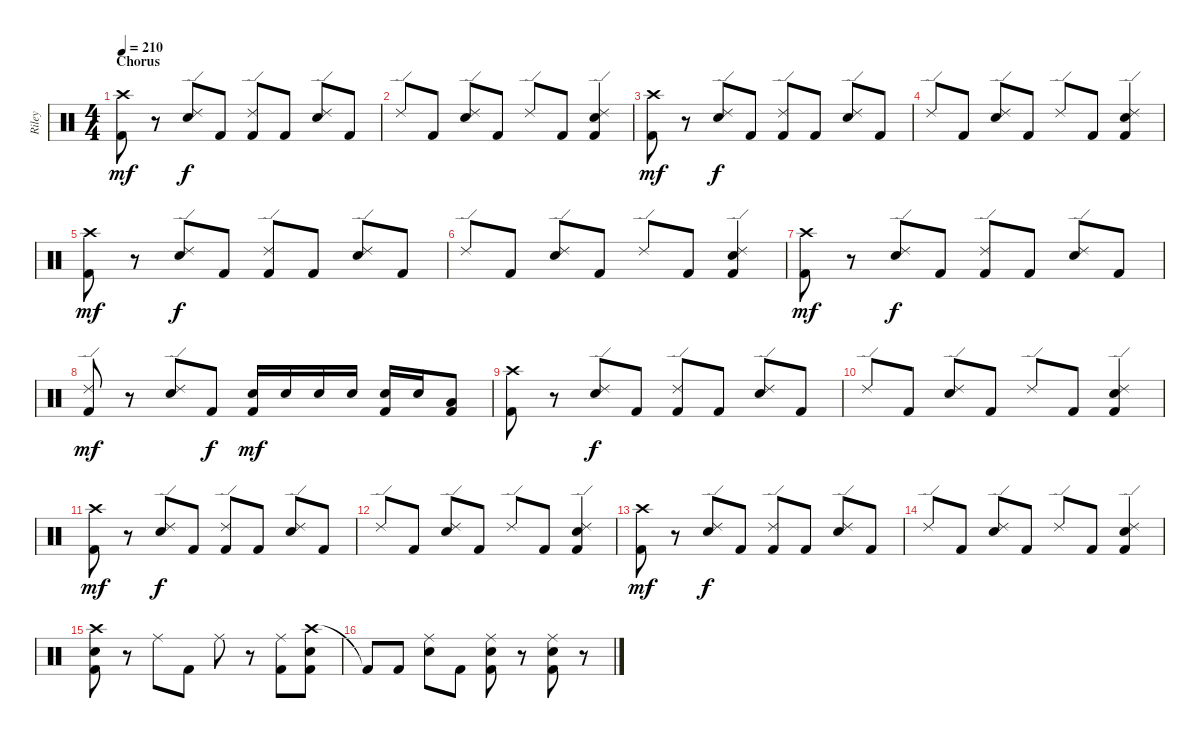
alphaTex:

\track ("Riley" "Riley") {instrument percussion}
\staff {score}
\articulation defaults
\ts (4 4)
\section ("" "Chorus")
\tempo 210
\clef neutral
\ks c
("Crash high (hit)" "Kick (hit) 2").8{dy mf} r.8 ("Ride (edge) 2" "Electric Snare (hit)").8{dy f} "Kick (hit) 2".8 ("Ride (edge) 2" "Kick (hit) 2").8 "Kick (hit) 2".8 ("Ride (edge) 2" "Electric Snare (hit)").8 "Kick (hit) 2".8 |
"Ride (edge) 2".8 "Kick (hit) 2".8 ("Ride (edge) 2" "Electric Snare (hit)").8 "Kick (hit) 2".8 "Ride (edge) 2".8 "Kick (hit) 2".8 ("Ride (edge) 2" "Electric Snare (hit)" "Kick (hit) 2").4 |
("Crash high (hit)" "Kick (hit) 2").8{dy mf} r.8 ("Ride (edge) 2" "Electric Snare (hit)").8{dy f} "Kick (hit) 2".8 ("Ride (edge) 2" "Kick (hit) 2").8 "Kick (hit) 2".8 ("Ride (edge) 2" "Electric Snare (hit)").8 "Kick (hit) 2".8 |
"Ride (edge) 2".8 "Kick (hit) 2".8 ("Ride (edge) 2" "Electric Snare (hit)").8 "Kick (hit) 2".8 "Ride (edge) 2".8 "Kick (hit) 2".8 ("Ride (edge) 2" "Electric Snare (hit)" "Kick (hit) 2").4 |
("Crash high (hit)" "Kick (hit) 2").8{dy mf} r.8 ("Ride (edge) 2" "Electric Snare (hit)").8{dy f} "Kick (hit) 2".8 ("Ride (edge) 2" "Kick (hit) 2").8 "Kick (hit) 2".8 ("Ride (edge) 2" "Electric Snare (hit)").8 "Kick (hit) 2".8 |
"Ride (edge) 2".8 "Kick (hit) 2".8 ("Ride (edge) 2" "Electric Snare (hit)").8 "Kick (hit) 2".8 "Ride (edge) 2".8 "Kick (hit) 2".8 ("Ride (edge) 2" "Electric Snare (hit)" "Kick (hit) 2").4 |
("Crash high (hit)" "Kick (hit) 2").8{dy mf} r.8 ("Ride (edge) 2" "Electric Snare (hit)").8{dy f} "Kick (hit) 2".8 ("Ride (edge) 2" "Kick (hit) 2").8 "Kick (hit) 2".8 ("Ride (edge) 2" "Electric Snare (hit)").8 "Kick (hit) 2".8 |
("Ride (edge) 2" "Kick (hit) 2").8{dy mf} r.8 ("Ride (edge) 2" "Electric Snare (hit)").8 "Kick (hit) 2".8{dy f} ("Electric Snare (hit)" "Kick (hit) 2").16{dy mf} "Electric Snare (hit)".16 "Electric Snare (hit)".16 "Electric Snare (hit)".16 ("Electric Snare (hit)" "Kick (hit) 2").16 "Electric Snare (hit)".16 ("Low Tom (hit)" "Kick (hit) 2").8 |
("Crash high (hit)" "Kick (hit) 2").8 r.8 ("Ride (edge) 2" "Electric Snare (hit)").8{dy f} "Kick (hit) 2".8 ("Ride (edge) 2" "Kick (hit) 2").8 "Kick (hit) 2".8 ("Ride (edge) 2" "Electric Snare (hit)").8 "Kick (hit) 2".8 |
"Ride (edge) 2".8 "Kick (hit) 2".8 ("Ride (edge) 2" "Electric Snare (hit)").8 "Kick (hit) 2".8 "Ride (edge) 2".8 "Kick (hit) 2".8 ("Ride (edge) 2" "Electric Snare (hit)" "Kick (hit) 2").4 |
("Crash high (hit)" "Kick (hit) 2").8{dy mf} r.8 ("Ride (edge) 2" "Electric Snare (hit)").8{dy f} "Kick (hit) 2".8 ("Ride (edge) 2" "Kick (hit) 2").8 "Kick (hit) 2".8 ("Ride (edge) 2" "Electric Snare (hit)").8 "Kick (hit) 2".8 |
"Ride (edge) 2".8 "Kick (hit) 2".8 ("Ride (edge) 2" "Electric Snare (hit)").8 "Kick (hit) 2".8 "Ride (edge) 2".8 "Kick (hit) 2".8 ("Ride (edge) 2" "Electric Snare (hit)" "Kick (hit) 2").4 |
("Crash high (hit)" "Kick (hit) 2").8{dy mf} r.8 ("Ride (edge) 2" "Electric Snare (hit)").8{dy f} "Kick (hit) 2".8 ("Ride (edge) 2" "Kick (hit) 2").8 "Kick (hit) 2".8 ("Ride (edge) 2" "Electric Snare (hit)").8 "Kick (hit) 2".8 |
"Ride (edge) 2".8 "Kick (hit) 2".8 ("Ride (edge) 2" "Electric Snare (hit)").8 "Kick (hit) 2".8 "Ride (edge) 2".8 "Kick (hit) 2".8 ("Ride (edge) 2" "Electric Snare (hit)" "Kick (hit) 2").4 |
("Crash high (hit)" "Electric Snare (hit)" "Kick (hit) 2").8 r.8 "Ride (middle)".8 "Kick (hit) 2".8 "Ride (middle)".8 r.8 ("Ride (middle)" "Kick (hit) 2").8 ("Crash high (hit)" "Electric Snare (hit)" "Kick (hit) 2").8 |
"Kick (hit) 2"{t}.8 "Kick (hit) 2".8 ("Ride (middle)" "Electric Snare (hit)").8 "Kick (hit) 2".8 ("Ride (middle)" "Electric Snare (hit)" "Kick (hit) 2").8 r.8 ("Ride (middle)" "Electric Snare (hit)" "Kick (hit) 2").8 r.8
